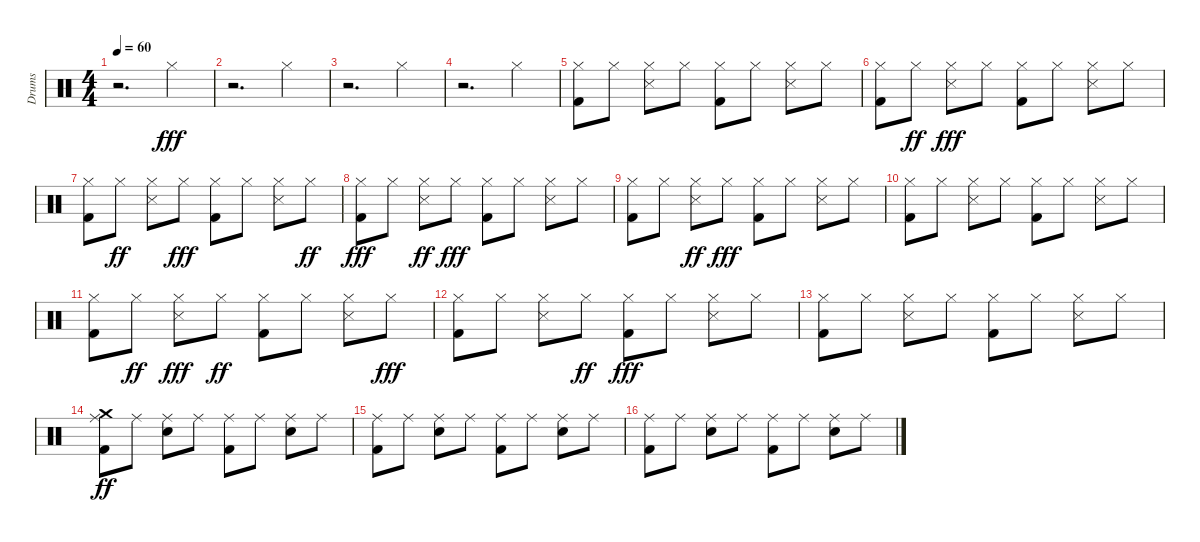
\track ("Drums" "Drums") {instrument percussion}
\staff {score}
\articulation defaults
\ts (4 4)
\tempo 60
\clef neutral
\ks c
r.2{d dy fff} "Hi-Hat (closed)".4 |
r.2{d} "Hi-Hat (closed)".4 |
r.2{d} "Hi-Hat (closed)".4 |
r.2{d} "Hi-Hat (closed)".4 |
("Kick (hit) 2" "Hi-Hat (closed)").8 "Hi-Hat (closed)".8 ("Hi-Hat (closed)" "Snare (side stick) 3").8 "Hi-Hat (closed)".8 ("Kick (hit) 2" "Hi-Hat (closed)").8 "Hi-Hat (closed)".8 ("Hi-Hat (closed)" "Snare (side stick) 3").8 "Hi-Hat (closed)".8 |
("Kick (hit) 2" "Hi-Hat (closed)").8 "Hi-Hat (closed)".8{dy ff} ("Hi-Hat (closed)" "Snare (side stick) 3").8{dy fff} "Hi-Hat (closed)".8 ("Kick (hit) 2" "Hi-Hat (closed)").8 "Hi-Hat (closed)".8 ("Hi-Hat (closed)" "Snare (side stick) 3").8 "Hi-Hat (closed)".8 |
("Kick (hit) 2" "Hi-Hat (closed)").8 "Hi-Hat (closed)".8{dy ff} ("Hi-Hat (closed)" "Snare (side stick) 3").8 "Hi-Hat (closed)".8{dy fff} ("Kick (hit) 2" "Hi-Hat (closed)").8 "Hi-Hat (closed)".8 ("Hi-Hat (closed)" "Snare (side stick) 3").8 "Hi-Hat (closed)".8{dy ff} |
("Kick (hit) 2" "Hi-Hat (closed)").8{dy fff} "Hi-Hat (closed)".8 ("Hi-Hat (closed)" "Snare (side stick) 3").8{dy ff} "Hi-Hat (closed)".8{dy fff} ("Kick (hit) 2" "Hi-Hat (closed)").8 "Hi-Hat (closed)".8 ("Hi-Hat (closed)" "Snare (side stick) 3").8 "Hi-Hat (closed)".8 |
("Kick (hit) 2" "Hi-Hat (closed)").8 "Hi-Hat (closed)".8 ("Hi-Hat (closed)" "Snare (side stick) 3").8{dy ff} "Hi-Hat (closed)".8{dy fff} ("Kick (hit) 2" "Hi-Hat (closed)").8 "Hi-Hat (closed)".8 ("Hi-Hat (closed)" "Snare (side stick) 3").8 "Hi-Hat (closed)".8 |
("Kick (hit) 2" "Hi-Hat (closed)").8 "Hi-Hat (closed)".8 ("Hi-Hat (closed)" "Snare (side stick) 3").8 "Hi-Hat (closed)".8 ("Kick (hit) 2" "Hi-Hat (closed)").8 "Hi-Hat (closed)".8 ("Hi-Hat (closed)" "Snare (side stick) 3").8 "Hi-Hat (closed)".8 |
("Kick (hit) 2" "Hi-Hat (closed)").8 "Hi-Hat (closed)".8{dy ff} ("Hi-Hat (closed)" "Snare (side stick) 3").8{dy fff} "Hi-Hat (closed)".8{dy ff} ("Kick (hit) 2" "Hi-Hat (closed)").8 "Hi-Hat (closed)".8 ("Hi-Hat (closed)" "Snare (side stick) 3").8 "Hi-Hat (closed)".8{dy fff} |
("Kick (hit) 2" "Hi-Hat (closed)").8 "Hi-Hat (closed)".8 ("Hi-Hat (closed)" "Snare (side stick) 3").8 "Hi-Hat (closed)".8{dy ff} ("Kick (hit) 2" "Hi-Hat (closed)").8{dy fff} "Hi-Hat (closed)".8 ("Hi-Hat (closed)" "Snare (side stick) 3").8 "Hi-Hat (closed)".8 |
("Kick (hit) 2" "Hi-Hat (closed)").8 "Hi-Hat (closed)".8 ("Hi-Hat (closed)" "Snare (side stick) 3").8 "Hi-Hat (closed)".8 ("Kick (hit) 2" "Hi-Hat (closed)").8 "Hi-Hat (closed)".8 ("Hi-Hat (closed)" "Snare (side stick) 3").8 "Hi-Hat (closed)".8 |
("Kick (hit) 2" "Crash medium (hit)" "Ride (middle)").8{dy ff} "Ride (middle)".8 ("Snare (hit) 2" "Ride (middle)").8 "Ride (middle)".8 ("Kick (hit) 2" "Ride (middle)").8 "Ride (middle)".8 ("Snare (hit) 2" "Ride (middle)").8 "Ride (middle)".8 |
("Kick (hit) 2" "Ride (middle)").8 "Ride (middle)".8 ("Snare (hit) 2" "Ride (middle)").8 "Ride (middle)".8 ("Kick (hit) 2" "Ride (middle)").8 "Ride (middle)".8 ("Snare (hit) 2" "Ride (middle)").8 "Ride (middle)".8 |
("Kick (hit) 2" "Ride (middle)").8 "Ride (middle)".8 ("Snare (hit) 2" "Ride (middle)").8 "Ride (middle)".8 ("Kick (hit) 2" "Ride (middle)").8 "Ride (middle)".8 ("Snare (hit) 2" "Ride (middle)").8 "Ride (middle)".8
